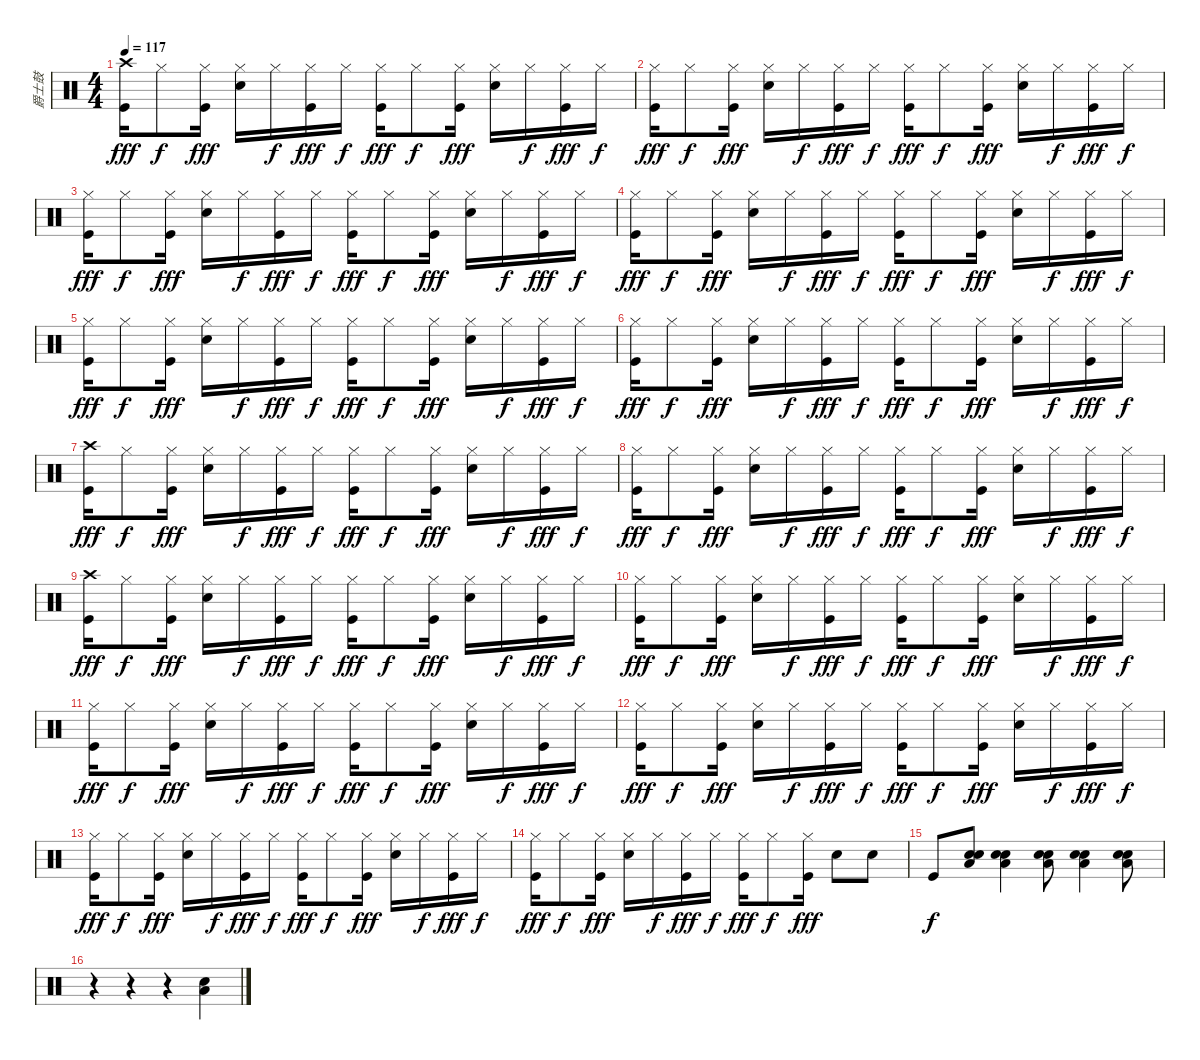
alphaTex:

\track ("爵士鼓" "爵士鼓") {instrument percussion}
\staff {score}
\articulation defaults
\ts (4 4)
\tempo 117
\clef neutral
\ks c
("Kick (hit)" "Crash high (hit)").16{dy fff} "Hi-Hat (closed)".8{dy f} ("Kick (hit)" "Hi-Hat (closed)").16{dy fff} ("Snare (hit) 2" "Hi-Hat (closed)").16 "Hi-Hat (closed)".16{dy f} ("Kick (hit)" "Hi-Hat (closed)").16{dy fff} "Hi-Hat (closed)".16{dy f} ("Kick (hit)" "Hi-Hat (closed)").16{dy fff} "Hi-Hat (closed)".8{dy f} ("Kick (hit)" "Hi-Hat (closed)").16{dy fff} ("Snare (hit) 2" "Hi-Hat (closed)").16 "Hi-Hat (closed)".16{dy f} ("Kick (hit)" "Hi-Hat (closed)").16{dy fff} "Hi-Hat (closed)".16{dy f} |
("Kick (hit)" "Hi-Hat (closed)").16{dy fff} "Hi-Hat (closed)".8{dy f} ("Kick (hit)" "Hi-Hat (closed)").16{dy fff} ("Snare (hit) 2" "Hi-Hat (closed)").16 "Hi-Hat (closed)".16{dy f} ("Kick (hit)" "Hi-Hat (closed)").16{dy fff} "Hi-Hat (closed)".16{dy f} ("Kick (hit)" "Hi-Hat (closed)").16{dy fff} "Hi-Hat (closed)".8{dy f} ("Kick (hit)" "Hi-Hat (closed)").16{dy fff} ("Snare (hit) 2" "Hi-Hat (closed)").16 "Hi-Hat (closed)".16{dy f} ("Kick (hit)" "Hi-Hat (closed)").16{dy fff} "Hi-Hat (closed)".16{dy f} |
("Kick (hit)" "Hi-Hat (closed)").16{dy fff} "Hi-Hat (closed)".8{dy f} ("Kick (hit)" "Hi-Hat (closed)").16{dy fff} ("Snare (hit) 2" "Hi-Hat (closed)").16 "Hi-Hat (closed)".16{dy f} ("Kick (hit)" "Hi-Hat (closed)").16{dy fff} "Hi-Hat (closed)".16{dy f} ("Kick (hit)" "Hi-Hat (closed)").16{dy fff} "Hi-Hat (closed)".8{dy f} ("Kick (hit)" "Hi-Hat (closed)").16{dy fff} ("Snare (hit) 2" "Hi-Hat (closed)").16 "Hi-Hat (closed)".16{dy f} ("Kick (hit)" "Hi-Hat (closed)").16{dy fff} "Hi-Hat (closed)".16{dy f} |
("Kick (hit)" "Hi-Hat (closed)").16{dy fff} "Hi-Hat (closed)".8{dy f} ("Kick (hit)" "Hi-Hat (closed)").16{dy fff} ("Snare (hit) 2" "Hi-Hat (closed)").16 "Hi-Hat (closed)".16{dy f} ("Kick (hit)" "Hi-Hat (closed)").16{dy fff} "Hi-Hat (closed)".16{dy f} ("Kick (hit)" "Hi-Hat (closed)").16{dy fff} "Hi-Hat (closed)".8{dy f} ("Kick (hit)" "Hi-Hat (closed)").16{dy fff} ("Snare (hit) 2" "Hi-Hat (closed)").16 "Hi-Hat (closed)".16{dy f} ("Kick (hit)" "Hi-Hat (closed)").16{dy fff} "Hi-Hat (closed)".16{dy f} |
("Kick (hit)" "Hi-Hat (closed)").16{dy fff} "Hi-Hat (closed)".8{dy f} ("Kick (hit)" "Hi-Hat (closed)").16{dy fff} ("Snare (hit) 2" "Hi-Hat (closed)").16 "Hi-Hat (closed)".16{dy f} ("Kick (hit)" "Hi-Hat (closed)").16{dy fff} "Hi-Hat (closed)".16{dy f} ("Kick (hit)" "Hi-Hat (closed)").16{dy fff} "Hi-Hat (closed)".8{dy f} ("Kick (hit)" "Hi-Hat (closed)").16{dy fff} ("Snare (hit) 2" "Hi-Hat (closed)").16 "Hi-Hat (closed)".16{dy f} ("Kick (hit)" "Hi-Hat (closed)").16{dy fff} "Hi-Hat (closed)".16{dy f} |
("Kick (hit)" "Hi-Hat (closed)").16{dy fff} "Hi-Hat (closed)".8{dy f} ("Kick (hit)" "Hi-Hat (closed)").16{dy fff} ("Snare (hit) 2" "Hi-Hat (closed)").16 "Hi-Hat (closed)".16{dy f} ("Kick (hit)" "Hi-Hat (closed)").16{dy fff} "Hi-Hat (closed)".16{dy f} ("Kick (hit)" "Hi-Hat (closed)").16{dy fff} "Hi-Hat (closed)".8{dy f} ("Kick (hit)" "Hi-Hat (closed)").16{dy fff} ("Snare (hit) 2" "Hi-Hat (closed)").16 "Hi-Hat (closed)".16{dy f} ("Kick (hit)" "Hi-Hat (closed)").16{dy fff} "Hi-Hat (closed)".16{dy f} |
("Kick (hit)" "Crash high (hit)").16{dy fff} "Hi-Hat (closed)".8{dy f} ("Kick (hit)" "Hi-Hat (closed)").16{dy fff} ("Snare (hit) 2" "Hi-Hat (closed)").16 "Hi-Hat (closed)".16{dy f} ("Kick (hit)" "Hi-Hat (closed)").16{dy fff} "Hi-Hat (closed)".16{dy f} ("Kick (hit)" "Hi-Hat (closed)").16{dy fff} "Hi-Hat (closed)".8{dy f} ("Kick (hit)" "Hi-Hat (closed)").16{dy fff} ("Snare (hit) 2" "Hi-Hat (closed)").16 "Hi-Hat (closed)".16{dy f} ("Kick (hit)" "Hi-Hat (closed)").16{dy fff} "Hi-Hat (closed)".16{dy f} |
("Kick (hit)" "Hi-Hat (closed)").16{dy fff} "Hi-Hat (closed)".8{dy f} ("Kick (hit)" "Hi-Hat (closed)").16{dy fff} ("Snare (hit) 2" "Hi-Hat (closed)").16 "Hi-Hat (closed)".16{dy f} ("Kick (hit)" "Hi-Hat (closed)").16{dy fff} "Hi-Hat (closed)".16{dy f} ("Kick (hit)" "Hi-Hat (closed)").16{dy fff} "Hi-Hat (closed)".8{dy f} ("Kick (hit)" "Hi-Hat (closed)").16{dy fff} ("Snare (hit) 2" "Hi-Hat (closed)").16 "Hi-Hat (closed)".16{dy f} ("Kick (hit)" "Hi-Hat (closed)").16{dy fff} "Hi-Hat (closed)".16{dy f} |
("Kick (hit)" "Crash high (hit)").16{dy fff} "Hi-Hat (closed)".8{dy f} ("Kick (hit)" "Hi-Hat (closed)").16{dy fff} ("Snare (hit) 2" "Hi-Hat (closed)").16 "Hi-Hat (closed)".16{dy f} ("Kick (hit)" "Hi-Hat (closed)").16{dy fff} "Hi-Hat (closed)".16{dy f} ("Kick (hit)" "Hi-Hat (closed)").16{dy fff} "Hi-Hat (closed)".8{dy f} ("Kick (hit)" "Hi-Hat (closed)").16{dy fff} ("Snare (hit) 2" "Hi-Hat (closed)").16 "Hi-Hat (closed)".16{dy f} ("Kick (hit)" "Hi-Hat (closed)").16{dy fff} "Hi-Hat (closed)".16{dy f} |
("Kick (hit)" "Hi-Hat (closed)").16{dy fff} "Hi-Hat (closed)".8{dy f} ("Kick (hit)" "Hi-Hat (closed)").16{dy fff} ("Snare (hit) 2" "Hi-Hat (closed)").16 "Hi-Hat (closed)".16{dy f} ("Kick (hit)" "Hi-Hat (closed)").16{dy fff} "Hi-Hat (closed)".16{dy f} ("Kick (hit)" "Hi-Hat (closed)").16{dy fff} "Hi-Hat (closed)".8{dy f} ("Kick (hit)" "Hi-Hat (closed)").16{dy fff} ("Snare (hit) 2" "Hi-Hat (closed)").16 "Hi-Hat (closed)".16{dy f} ("Kick (hit)" "Hi-Hat (closed)").16{dy fff} "Hi-Hat (closed)".16{dy f} |
("Kick (hit)" "Hi-Hat (closed)").16{dy fff} "Hi-Hat (closed)".8{dy f} ("Kick (hit)" "Hi-Hat (closed)").16{dy fff} ("Snare (hit) 2" "Hi-Hat (closed)").16 "Hi-Hat (closed)".16{dy f} ("Kick (hit)" "Hi-Hat (closed)").16{dy fff} "Hi-Hat (closed)".16{dy f} ("Kick (hit)" "Hi-Hat (closed)").16{dy fff} "Hi-Hat (closed)".8{dy f} ("Kick (hit)" "Hi-Hat (closed)").16{dy fff} ("Snare (hit) 2" "Hi-Hat (closed)").16 "Hi-Hat (closed)".16{dy f} ("Kick (hit)" "Hi-Hat (closed)").16{dy fff} "Hi-Hat (closed)".16{dy f} |
("Kick (hit)" "Hi-Hat (closed)").16{dy fff} "Hi-Hat (closed)".8{dy f} ("Kick (hit)" "Hi-Hat (closed)").16{dy fff} ("Snare (hit) 2" "Hi-Hat (closed)").16 "Hi-Hat (closed)".16{dy f} ("Kick (hit)" "Hi-Hat (closed)").16{dy fff} "Hi-Hat (closed)".16{dy f} ("Kick (hit)" "Hi-Hat (closed)").16{dy fff} "Hi-Hat (closed)".8{dy f} ("Kick (hit)" "Hi-Hat (closed)").16{dy fff} ("Snare (hit) 2" "Hi-Hat (closed)").16 "Hi-Hat (closed)".16{dy f} ("Kick (hit)" "Hi-Hat (closed)").16{dy fff} "Hi-Hat (closed)".16{dy f} |
("Kick (hit)" "Hi-Hat (closed)").16{dy fff} "Hi-Hat (closed)".8{dy f} ("Kick (hit)" "Hi-Hat (closed)").16{dy fff} ("Snare (hit) 2" "Hi-Hat (closed)").16 "Hi-Hat (closed)".16{dy f} ("Kick (hit)" "Hi-Hat (closed)").16{dy fff} "Hi-Hat (closed)".16{dy f} ("Kick (hit)" "Hi-Hat (closed)").16{dy fff} "Hi-Hat (closed)".8{dy f} ("Kick (hit)" "Hi-Hat (closed)").16{dy fff} ("Snare (hit) 2" "Hi-Hat (closed)").16 "Hi-Hat (closed)".16{dy f} ("Kick (hit)" "Hi-Hat (closed)").16{dy fff} "Hi-Hat (closed)".16{dy f} |
("Kick (hit)" "Hi-Hat (closed)").16{dy fff} "Hi-Hat (closed)".8{dy f} ("Kick (hit)" "Hi-Hat (closed)").16{dy fff} ("Snare (hit) 2" "Hi-Hat (closed)").16 "Hi-Hat (closed)".16{dy f} ("Kick (hit)" "Hi-Hat (closed)").16{dy fff} "Hi-Hat (closed)".16{dy f} ("Kick (hit)" "Hi-Hat (closed)").16{dy fff} "Hi-Hat (closed)".8{dy f} ("Kick (hit)" "Hi-Hat (closed)").16{dy fff} "Snare (hit) 2".8 "Snare (hit) 2".8 |
"Kick (hit)".8{dy f} ("Low Floor Tom (hit)" "Snare (hit) 2" "Snare (hit) 2").8 ("Low Floor Tom (hit)" "Snare (hit) 2" "Snare (hit) 2").4 ("Low Floor Tom (hit)" "Snare (hit) 2" "Snare (hit) 2").8 ("Low Floor Tom (hit)" "Snare (hit) 2" "Snare (hit) 2").4 ("Low Floor Tom (hit)" "Snare (hit) 2" "Snare (hit) 2").8 |
r.4 r.4 r.4 ("Snare (hit) 2" "Low Floor Tom (hit)").4
